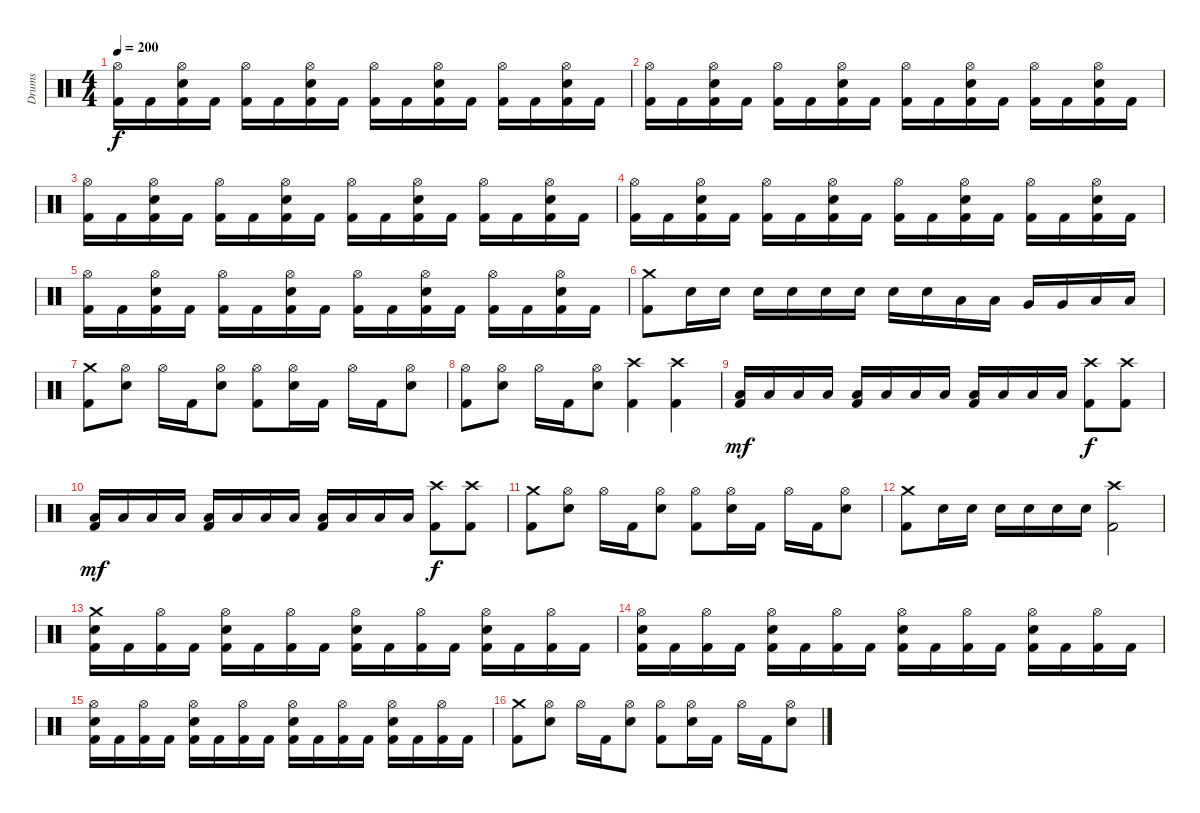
\track ("Drums" "Drums") {instrument percussion}
\staff {score}
\articulation defaults
\ts (4 4)
\tempo 200
\clef neutral
\ks c
("Hi-Hat (open)" "Kick (hit) 2").16{dy f} "Kick (hit) 2".16 ("Hi-Hat (open)" "Snare (hit) 2" "Kick (hit) 2").16 "Kick (hit) 2".16 ("Hi-Hat (open)" "Kick (hit) 2").16 "Kick (hit) 2".16 ("Hi-Hat (open)" "Snare (hit) 2" "Kick (hit) 2").16 "Kick (hit) 2".16 ("Hi-Hat (open)" "Kick (hit) 2").16 "Kick (hit) 2".16 ("Hi-Hat (open)" "Snare (hit) 2" "Kick (hit) 2").16 "Kick (hit) 2".16 ("Hi-Hat (open)" "Kick (hit) 2").16 "Kick (hit) 2".16 ("Hi-Hat (open)" "Snare (hit) 2" "Kick (hit) 2").16 "Kick (hit) 2".16 |
("Hi-Hat (open)" "Kick (hit) 2").16 "Kick (hit) 2".16 ("Hi-Hat (open)" "Snare (hit) 2" "Kick (hit) 2").16 "Kick (hit) 2".16 ("Hi-Hat (open)" "Kick (hit) 2").16 "Kick (hit) 2".16 ("Hi-Hat (open)" "Snare (hit) 2" "Kick (hit) 2").16 "Kick (hit) 2".16 ("Hi-Hat (open)" "Kick (hit) 2").16 "Kick (hit) 2".16 ("Hi-Hat (open)" "Snare (hit) 2" "Kick (hit) 2").16 "Kick (hit) 2".16 ("Hi-Hat (open)" "Kick (hit) 2").16 "Kick (hit) 2".16 ("Hi-Hat (open)" "Snare (hit) 2" "Kick (hit) 2").16 "Kick (hit) 2".16 |
("Hi-Hat (open)" "Kick (hit) 2").16 "Kick (hit) 2".16 ("Hi-Hat (open)" "Snare (hit) 2" "Kick (hit) 2").16 "Kick (hit) 2".16 ("Hi-Hat (open)" "Kick (hit) 2").16 "Kick (hit) 2".16 ("Hi-Hat (open)" "Snare (hit) 2" "Kick (hit) 2").16 "Kick (hit) 2".16 ("Hi-Hat (open)" "Kick (hit) 2").16 "Kick (hit) 2".16 ("Hi-Hat (open)" "Snare (hit) 2" "Kick (hit) 2").16 "Kick (hit) 2".16 ("Hi-Hat (open)" "Kick (hit) 2").16 "Kick (hit) 2".16 ("Hi-Hat (open)" "Snare (hit) 2" "Kick (hit) 2").16 "Kick (hit) 2".16 |
("Hi-Hat (open)" "Kick (hit) 2").16 "Kick (hit) 2".16 ("Hi-Hat (open)" "Snare (hit) 2" "Kick (hit) 2").16 "Kick (hit) 2".16 ("Hi-Hat (open)" "Kick (hit) 2").16 "Kick (hit) 2".16 ("Hi-Hat (open)" "Snare (hit) 2" "Kick (hit) 2").16 "Kick (hit) 2".16 ("Hi-Hat (open)" "Kick (hit) 2").16 "Kick (hit) 2".16 ("Hi-Hat (open)" "Snare (hit) 2" "Kick (hit) 2").16 "Kick (hit) 2".16 ("Hi-Hat (open)" "Kick (hit) 2").16 "Kick (hit) 2".16 ("Hi-Hat (open)" "Snare (hit) 2" "Kick (hit) 2").16 "Kick (hit) 2".16 |
("Hi-Hat (open)" "Kick (hit) 2").16 "Kick (hit) 2".16 ("Hi-Hat (open)" "Snare (hit) 2" "Kick (hit) 2").16 "Kick (hit) 2".16 ("Hi-Hat (open)" "Kick (hit) 2").16 "Kick (hit) 2".16 ("Hi-Hat (open)" "Snare (hit) 2" "Kick (hit) 2").16 "Kick (hit) 2".16 ("Hi-Hat (open)" "Kick (hit) 2").16 "Kick (hit) 2".16 ("Hi-Hat (open)" "Snare (hit) 2" "Kick (hit) 2").16 "Kick (hit) 2".16 ("Hi-Hat (open)" "Kick (hit) 2").16 "Kick (hit) 2".16 ("Hi-Hat (open)" "Snare (hit) 2" "Kick (hit) 2").16 "Kick (hit) 2".16 |
("Crash medium (hit)" "Kick (hit) 2").8 "Snare (hit) 2".16 "Snare (hit) 2".16 "Snare (hit) 2".16 "Snare (hit) 2".16 "Snare (hit) 2".16 "Snare (hit) 2".16 "Snare (hit) 2".16 "Snare (hit) 2".16 "Low Tom (hit)".16 "Low Tom (hit)".16 "Very Low Tom (hit)".16 "Very Low Tom (hit)".16 "Low Floor Tom (hit)".16 "Low Floor Tom (hit)".16 |
("Crash medium (hit)" "Kick (hit) 2").8 ("Hi-Hat (open)" "Snare (hit) 2").8 "Hi-Hat (open)".16 "Kick (hit) 2".16 ("Hi-Hat (open)" "Snare (hit) 2").8 ("Hi-Hat (open)" "Kick (hit) 2").8 ("Hi-Hat (open)" "Snare (hit) 2").16 "Kick (hit) 2".16 "Hi-Hat (open)".16 "Kick (hit) 2".16 ("Hi-Hat (open)" "Snare (hit) 2").8 |
("Hi-Hat (open)" "Kick (hit) 2").8 ("Hi-Hat (open)" "Snare (hit) 2").8 "Hi-Hat (open)".16 "Kick (hit) 2".16 ("Hi-Hat (open)" "Snare (hit) 2").8 ("Crash high (hit)" "Kick (hit) 2").4 ("Crash high (hit)" "Kick (hit) 2").4 |
("Low Floor Tom (hit)" "Kick (hit) 2").16{dy mf} "Low Floor Tom (hit)".16 "Low Floor Tom (hit)".16 "Low Floor Tom (hit)".16 ("Low Floor Tom (hit)" "Kick (hit) 2").16 "Low Floor Tom (hit)".16 "Low Floor Tom (hit)".16 "Low Floor Tom (hit)".16 ("Low Floor Tom (hit)" "Kick (hit) 2").16 "Low Floor Tom (hit)".16 "Low Floor Tom (hit)".16 "Low Floor Tom (hit)".16 ("Crash high (hit)" "Kick (hit) 2").8{dy f} ("Crash high (hit)" "Kick (hit) 2").8 |
("Low Floor Tom (hit)" "Kick (hit) 2").16{dy mf} "Low Floor Tom (hit)".16 "Low Floor Tom (hit)".16 "Low Floor Tom (hit)".16 ("Low Floor Tom (hit)" "Kick (hit) 2").16 "Low Floor Tom (hit)".16 "Low Floor Tom (hit)".16 "Low Floor Tom (hit)".16 ("Low Floor Tom (hit)" "Kick (hit) 2").16 "Low Floor Tom (hit)".16 "Low Floor Tom (hit)".16 "Low Floor Tom (hit)".16 ("Crash high (hit)" "Kick (hit) 2").8{dy f} ("Crash high (hit)" "Kick (hit) 2").8 |
("Crash medium (hit)" "Kick (hit) 2").8 ("Hi-Hat (open)" "Snare (hit) 2").8 "Hi-Hat (open)".16 "Kick (hit) 2".16 ("Hi-Hat (open)" "Snare (hit) 2").8 ("Hi-Hat (open)" "Kick (hit) 2").8 ("Hi-Hat (open)" "Snare (hit) 2").16 "Kick (hit) 2".16 "Hi-Hat (open)".16 "Kick (hit) 2".16 ("Hi-Hat (open)" "Snare (hit) 2").8 |
("Crash medium (hit)" "Kick (hit) 2").8 "Snare (hit) 2".16 "Snare (hit) 2".16 "Snare (hit) 2".16 "Snare (hit) 2".16 "Snare (hit) 2".16 "Snare (hit) 2".16 ("Crash high (hit)" "Kick (hit) 2").2 |
("Crash medium (hit)" "Snare (hit) 2" "Kick (hit) 2").16 "Kick (hit) 2".16 ("Hi-Hat (open)" "Kick (hit) 2").16 "Kick (hit) 2".16 ("Hi-Hat (open)" "Snare (hit) 2" "Kick (hit) 2").16 "Kick (hit) 2".16 ("Hi-Hat (open)" "Kick (hit) 2").16 "Kick (hit) 2".16 ("Hi-Hat (open)" "Snare (hit) 2" "Kick (hit) 2").16 "Kick (hit) 2".16 ("Hi-Hat (open)" "Kick (hit) 2").16 "Kick (hit) 2".16 ("Hi-Hat (open)" "Snare (hit) 2" "Kick (hit) 2").16 "Kick (hit) 2".16 ("Hi-Hat (open)" "Kick (hit) 2").16 "Kick (hit) 2".16 |
("Hi-Hat (open)" "Snare (hit) 2" "Kick (hit) 2").16 "Kick (hit) 2".16 ("Hi-Hat (open)" "Kick (hit) 2").16 "Kick (hit) 2".16 ("Hi-Hat (open)" "Snare (hit) 2" "Kick (hit) 2").16 "Kick (hit) 2".16 ("Hi-Hat (open)" "Kick (hit) 2").16 "Kick (hit) 2".16 ("Hi-Hat (open)" "Snare (hit) 2" "Kick (hit) 2").16 "Kick (hit) 2".16 ("Hi-Hat (open)" "Kick (hit) 2").16 "Kick (hit) 2".16 ("Hi-Hat (open)" "Snare (hit) 2" "Kick (hit) 2").16 "Kick (hit) 2".16 ("Hi-Hat (open)" "Kick (hit) 2").16 "Kick (hit) 2".16 |
("Hi-Hat (open)" "Snare (hit) 2" "Kick (hit) 2").16 "Kick (hit) 2".16 ("Hi-Hat (open)" "Kick (hit) 2").16 "Kick (hit) 2".16 ("Hi-Hat (open)" "Snare (hit) 2" "Kick (hit) 2").16 "Kick (hit) 2".16 ("Hi-Hat (open)" "Kick (hit) 2").16 "Kick (hit) 2".16 ("Hi-Hat (open)" "Snare (hit) 2" "Kick (hit) 2").16 "Kick (hit) 2".16 ("Hi-Hat (open)" "Kick (hit) 2").16 "Kick (hit) 2".16 ("Hi-Hat (open)" "Snare (hit) 2" "Kick (hit) 2").16 "Kick (hit) 2".16 ("Hi-Hat (open)" "Kick (hit) 2").16 "Kick (hit) 2".16 |
("Crash medium (hit)" "Kick (hit) 2").8 ("Hi-Hat (open)" "Snare (hit) 2").8 "Hi-Hat (open)".16 "Kick (hit) 2".16 ("Hi-Hat (open)" "Snare (hit) 2").8 ("Hi-Hat (open)" "Kick (hit) 2").8 ("Hi-Hat (open)" "Snare (hit) 2").16 "Kick (hit) 2".16 "Hi-Hat (open)".16 "Kick (hit) 2".16 ("Hi-Hat (open)" "Snare (hit) 2").8
